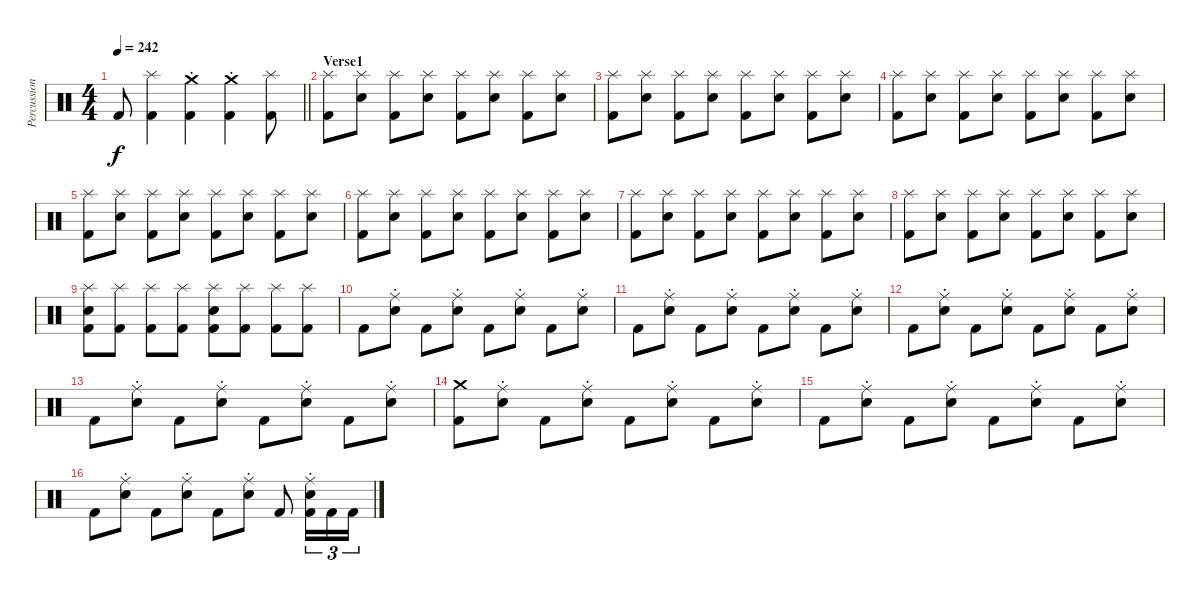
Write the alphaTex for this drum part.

\track ("Percussion" "Percussion") {instrument percussion}
\staff {score}
\articulation defaults
\ts (4 4)
\tempo 242
\clef neutral
\barLineRight lightlight
\ks c "Kick (hit) 2".8{dy f}
("Splash (hit)" "Kick (hit) 2").4 ("Crash medium (hit)"{st} "Kick (hit) 2").4 ("Crash medium (hit)"{st} "Kick (hit) 2").4 ("Splash (hit)" "Kick (hit) 2").8 |
\section ("" "Verse1")
("Splash (hit)" "Kick (hit) 2").8 ("Splash (hit)" "Snare (hit) 2").8 ("Splash (hit)" "Kick (hit) 2").8 ("Splash (hit)" "Snare (hit) 2").8 ("Splash (hit)" "Kick (hit) 2").8 ("Splash (hit)" "Snare (hit) 2").8 ("Splash (hit)" "Kick (hit) 2").8 ("Splash (hit)" "Snare (hit) 2").8 |
("Splash (hit)" "Kick (hit) 2").8 ("Splash (hit)" "Snare (hit) 2").8 ("Splash (hit)" "Kick (hit) 2").8 ("Splash (hit)" "Snare (hit) 2").8 ("Splash (hit)" "Kick (hit) 2").8 ("Splash (hit)" "Snare (hit) 2").8 ("Splash (hit)" "Kick (hit) 2").8 ("Splash (hit)" "Snare (hit) 2").8 |
("Splash (hit)" "Kick (hit) 2").8 ("Splash (hit)" "Snare (hit) 2").8 ("Splash (hit)" "Kick (hit) 2").8 ("Splash (hit)" "Snare (hit) 2").8 ("Splash (hit)" "Kick (hit) 2").8 ("Splash (hit)" "Snare (hit) 2").8 ("Splash (hit)" "Kick (hit) 2").8 ("Splash (hit)" "Snare (hit) 2").8 |
("Splash (hit)" "Kick (hit) 2").8 ("Splash (hit)" "Snare (hit) 2").8 ("Splash (hit)" "Kick (hit) 2").8 ("Splash (hit)" "Snare (hit) 2").8 ("Splash (hit)" "Kick (hit) 2").8 ("Splash (hit)" "Snare (hit) 2").8 ("Splash (hit)" "Kick (hit) 2").8 ("Splash (hit)" "Snare (hit) 2").8 |
("Splash (hit)" "Kick (hit) 2").8 ("Splash (hit)" "Snare (hit) 2").8 ("Splash (hit)" "Kick (hit) 2").8 ("Splash (hit)" "Snare (hit) 2").8 ("Splash (hit)" "Kick (hit) 2").8 ("Splash (hit)" "Snare (hit) 2").8 ("Splash (hit)" "Kick (hit) 2").8 ("Splash (hit)" "Snare (hit) 2").8 |
("Splash (hit)" "Kick (hit) 2").8 ("Splash (hit)" "Snare (hit) 2").8 ("Splash (hit)" "Kick (hit) 2").8 ("Splash (hit)" "Snare (hit) 2").8 ("Splash (hit)" "Kick (hit) 2").8 ("Splash (hit)" "Snare (hit) 2").8 ("Splash (hit)" "Kick (hit) 2").8 ("Splash (hit)" "Snare (hit) 2").8 |
("Splash (hit)" "Kick (hit) 2").8 ("Splash (hit)" "Snare (hit) 2").8 ("Splash (hit)" "Kick (hit) 2").8 ("Splash (hit)" "Snare (hit) 2").8 ("Splash (hit)" "Kick (hit) 2").8 ("Splash (hit)" "Snare (hit) 2").8 ("Splash (hit)" "Kick (hit) 2").8 ("Splash (hit)" "Snare (hit) 2").8 |
("Splash (hit)" "Snare (hit) 2" "Kick (hit) 2").8 ("Splash (hit)" "Kick (hit) 2").8 ("Splash (hit)" "Kick (hit) 2").8 ("Splash (hit)" "Kick (hit) 2").8 ("Splash (hit)" "Snare (hit) 2" "Kick (hit) 2").8 ("Splash (hit)" "Kick (hit) 2").8 ("Splash (hit)" "Kick (hit) 2").8 ("Splash (hit)" "Kick (hit) 2").8 |
"Kick (hit) 2".8 ("Ride (middle)"{st} "Snare (hit) 2").8 "Kick (hit) 2".8 ("Ride (middle)"{st} "Snare (hit) 2").8 "Kick (hit) 2".8 ("Ride (middle)"{st} "Snare (hit) 2").8 "Kick (hit) 2".8 ("Ride (middle)"{st} "Snare (hit) 2").8 |
"Kick (hit) 2".8 ("Ride (middle)"{st} "Snare (hit) 2").8 "Kick (hit) 2".8 ("Ride (middle)"{st} "Snare (hit) 2").8 "Kick (hit) 2".8 ("Ride (middle)"{st} "Snare (hit) 2").8 "Kick (hit) 2".8 ("Ride (middle)"{st} "Snare (hit) 2").8 |
"Kick (hit) 2".8 ("Ride (middle)"{st} "Snare (hit) 2").8 "Kick (hit) 2".8 ("Ride (middle)"{st} "Snare (hit) 2").8 "Kick (hit) 2".8 ("Ride (middle)"{st} "Snare (hit) 2").8 "Kick (hit) 2".8 ("Ride (middle)"{st} "Snare (hit) 2").8 |
"Kick (hit) 2".8 ("Ride (middle)"{st} "Snare (hit) 2").8 "Kick (hit) 2".8 ("Ride (middle)"{st} "Snare (hit) 2").8 "Kick (hit) 2".8 ("Ride (middle)"{st} "Snare (hit) 2").8 "Kick (hit) 2".8 ("Ride (middle)"{st} "Snare (hit) 2").8 |
("Crash medium (hit)" "Kick (hit) 2").8 ("Ride (middle)"{st} "Snare (hit) 2").8 "Kick (hit) 2".8 ("Ride (middle)"{st} "Snare (hit) 2").8 "Kick (hit) 2".8 ("Ride (middle)"{st} "Snare (hit) 2").8 "Kick (hit) 2".8 ("Ride (middle)"{st} "Snare (hit) 2").8 |
"Kick (hit) 2".8 ("Ride (middle)"{st} "Snare (hit) 2").8 "Kick (hit) 2".8 ("Ride (middle)"{st} "Snare (hit) 2").8 "Kick (hit) 2".8 ("Ride (middle)"{st} "Snare (hit) 2").8 "Kick (hit) 2".8 ("Ride (middle)"{st} "Snare (hit) 2").8 |
"Kick (hit) 2".8 ("Ride (middle)"{st} "Snare (hit) 2").8 "Kick (hit) 2".8 ("Ride (middle)"{st} "Snare (hit) 2").8 "Kick (hit) 2".8 ("Ride (middle)"{st} "Snare (hit) 2").8 "Kick (hit) 2".8 ("Ride (middle)"{st} "Snare (hit) 2" "Kick (hit) 2").16{tu (3 2)} "Kick (hit) 2".16{tu (3 2)} "Kick (hit) 2".16{tu (3 2)}
